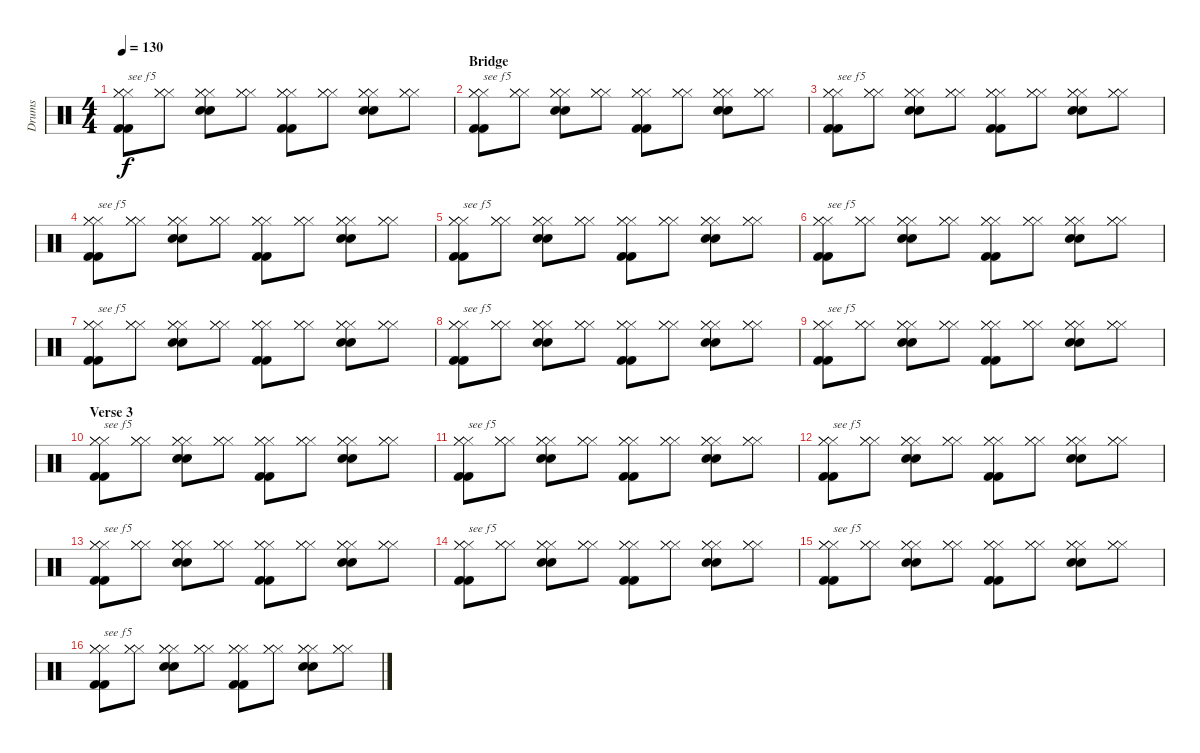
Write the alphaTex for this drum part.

\track ("Drums" "Drums") {instrument percussion}
\staff {score}
\articulation defaults
\ts (4 4)
\tempo 130
\clef neutral
\ks c
("Hi-Hat (closed)" "Hi-Hat (closed)" "Hi-Hat (closed)" "Kick (hit) 2" "Kick (hit) 2").8{txt "see f5" dy f} ("Hi-Hat (closed)" "Hi-Hat (closed)" "Hi-Hat (closed)").8 ("Hi-Hat (closed)" "Hi-Hat (closed)" "Hi-Hat (closed)" "Electric Snare (hit)" "Electric Snare (hit)").8 ("Hi-Hat (closed)" "Hi-Hat (closed)" "Hi-Hat (closed)").8 ("Hi-Hat (closed)" "Hi-Hat (closed)" "Hi-Hat (closed)" "Kick (hit) 2" "Kick (hit) 2").8 ("Hi-Hat (closed)" "Hi-Hat (closed)" "Hi-Hat (closed)").8 ("Hi-Hat (closed)" "Hi-Hat (closed)" "Hi-Hat (closed)" "Electric Snare (hit)" "Electric Snare (hit)").8 ("Hi-Hat (closed)" "Hi-Hat (closed)" "Hi-Hat (closed)").8 |
\section ("" "Bridge")
("Hi-Hat (closed)" "Hi-Hat (closed)" "Hi-Hat (closed)" "Kick (hit) 2" "Kick (hit) 2").8{txt "see f5"} ("Hi-Hat (closed)" "Hi-Hat (closed)" "Hi-Hat (closed)").8 ("Hi-Hat (closed)" "Hi-Hat (closed)" "Hi-Hat (closed)" "Electric Snare (hit)" "Electric Snare (hit)").8 ("Hi-Hat (closed)" "Hi-Hat (closed)" "Hi-Hat (closed)").8 ("Hi-Hat (closed)" "Hi-Hat (closed)" "Hi-Hat (closed)" "Kick (hit) 2" "Kick (hit) 2").8 ("Hi-Hat (closed)" "Hi-Hat (closed)" "Hi-Hat (closed)").8 ("Hi-Hat (closed)" "Hi-Hat (closed)" "Hi-Hat (closed)" "Electric Snare (hit)" "Electric Snare (hit)").8 ("Hi-Hat (closed)" "Hi-Hat (closed)" "Hi-Hat (closed)").8 |
("Hi-Hat (closed)" "Hi-Hat (closed)" "Hi-Hat (closed)" "Kick (hit) 2" "Kick (hit) 2").8{txt "see f5"} ("Hi-Hat (closed)" "Hi-Hat (closed)" "Hi-Hat (closed)").8 ("Hi-Hat (closed)" "Hi-Hat (closed)" "Hi-Hat (closed)" "Electric Snare (hit)" "Electric Snare (hit)").8 ("Hi-Hat (closed)" "Hi-Hat (closed)" "Hi-Hat (closed)").8 ("Hi-Hat (closed)" "Hi-Hat (closed)" "Hi-Hat (closed)" "Kick (hit) 2" "Kick (hit) 2").8 ("Hi-Hat (closed)" "Hi-Hat (closed)" "Hi-Hat (closed)").8 ("Hi-Hat (closed)" "Hi-Hat (closed)" "Hi-Hat (closed)" "Electric Snare (hit)" "Electric Snare (hit)").8 ("Hi-Hat (closed)" "Hi-Hat (closed)" "Hi-Hat (closed)").8 |
("Hi-Hat (closed)" "Hi-Hat (closed)" "Hi-Hat (closed)" "Kick (hit) 2" "Kick (hit) 2").8{txt "see f5"} ("Hi-Hat (closed)" "Hi-Hat (closed)" "Hi-Hat (closed)").8 ("Hi-Hat (closed)" "Hi-Hat (closed)" "Hi-Hat (closed)" "Electric Snare (hit)" "Electric Snare (hit)").8 ("Hi-Hat (closed)" "Hi-Hat (closed)" "Hi-Hat (closed)").8 ("Hi-Hat (closed)" "Hi-Hat (closed)" "Hi-Hat (closed)" "Kick (hit) 2" "Kick (hit) 2").8 ("Hi-Hat (closed)" "Hi-Hat (closed)" "Hi-Hat (closed)").8 ("Hi-Hat (closed)" "Hi-Hat (closed)" "Hi-Hat (closed)" "Electric Snare (hit)" "Electric Snare (hit)").8 ("Hi-Hat (closed)" "Hi-Hat (closed)" "Hi-Hat (closed)").8 |
("Hi-Hat (closed)" "Hi-Hat (closed)" "Hi-Hat (closed)" "Kick (hit) 2" "Kick (hit) 2").8{txt "see f5"} ("Hi-Hat (closed)" "Hi-Hat (closed)" "Hi-Hat (closed)").8 ("Hi-Hat (closed)" "Hi-Hat (closed)" "Hi-Hat (closed)" "Electric Snare (hit)" "Electric Snare (hit)").8 ("Hi-Hat (closed)" "Hi-Hat (closed)" "Hi-Hat (closed)").8 ("Hi-Hat (closed)" "Hi-Hat (closed)" "Hi-Hat (closed)" "Kick (hit) 2" "Kick (hit) 2").8 ("Hi-Hat (closed)" "Hi-Hat (closed)" "Hi-Hat (closed)").8 ("Hi-Hat (closed)" "Hi-Hat (closed)" "Hi-Hat (closed)" "Electric Snare (hit)" "Electric Snare (hit)").8 ("Hi-Hat (closed)" "Hi-Hat (closed)" "Hi-Hat (closed)").8 |
("Hi-Hat (closed)" "Hi-Hat (closed)" "Hi-Hat (closed)" "Kick (hit) 2" "Kick (hit) 2").8{txt "see f5"} ("Hi-Hat (closed)" "Hi-Hat (closed)" "Hi-Hat (closed)").8 ("Hi-Hat (closed)" "Hi-Hat (closed)" "Hi-Hat (closed)" "Electric Snare (hit)" "Electric Snare (hit)").8 ("Hi-Hat (closed)" "Hi-Hat (closed)" "Hi-Hat (closed)").8 ("Hi-Hat (closed)" "Hi-Hat (closed)" "Hi-Hat (closed)" "Kick (hit) 2" "Kick (hit) 2").8 ("Hi-Hat (closed)" "Hi-Hat (closed)" "Hi-Hat (closed)").8 ("Hi-Hat (closed)" "Hi-Hat (closed)" "Hi-Hat (closed)" "Electric Snare (hit)" "Electric Snare (hit)").8 ("Hi-Hat (closed)" "Hi-Hat (closed)" "Hi-Hat (closed)").8 |
("Hi-Hat (closed)" "Hi-Hat (closed)" "Hi-Hat (closed)" "Kick (hit) 2" "Kick (hit) 2").8{txt "see f5"} ("Hi-Hat (closed)" "Hi-Hat (closed)" "Hi-Hat (closed)").8 ("Hi-Hat (closed)" "Hi-Hat (closed)" "Hi-Hat (closed)" "Electric Snare (hit)" "Electric Snare (hit)").8 ("Hi-Hat (closed)" "Hi-Hat (closed)" "Hi-Hat (closed)").8 ("Hi-Hat (closed)" "Hi-Hat (closed)" "Hi-Hat (closed)" "Kick (hit) 2" "Kick (hit) 2").8 ("Hi-Hat (closed)" "Hi-Hat (closed)" "Hi-Hat (closed)").8 ("Hi-Hat (closed)" "Hi-Hat (closed)" "Hi-Hat (closed)" "Electric Snare (hit)" "Electric Snare (hit)").8 ("Hi-Hat (closed)" "Hi-Hat (closed)" "Hi-Hat (closed)").8 |
("Hi-Hat (closed)" "Hi-Hat (closed)" "Hi-Hat (closed)" "Kick (hit) 2" "Kick (hit) 2").8{txt "see f5"} ("Hi-Hat (closed)" "Hi-Hat (closed)" "Hi-Hat (closed)").8 ("Hi-Hat (closed)" "Hi-Hat (closed)" "Hi-Hat (closed)" "Electric Snare (hit)" "Electric Snare (hit)").8 ("Hi-Hat (closed)" "Hi-Hat (closed)" "Hi-Hat (closed)").8 ("Hi-Hat (closed)" "Hi-Hat (closed)" "Hi-Hat (closed)" "Kick (hit) 2" "Kick (hit) 2").8 ("Hi-Hat (closed)" "Hi-Hat (closed)" "Hi-Hat (closed)").8 ("Hi-Hat (closed)" "Hi-Hat (closed)" "Hi-Hat (closed)" "Electric Snare (hit)" "Electric Snare (hit)").8 ("Hi-Hat (closed)" "Hi-Hat (closed)" "Hi-Hat (closed)").8 |
("Hi-Hat (closed)" "Hi-Hat (closed)" "Hi-Hat (closed)" "Kick (hit) 2" "Kick (hit) 2").8{txt "see f5"} ("Hi-Hat (closed)" "Hi-Hat (closed)" "Hi-Hat (closed)").8 ("Hi-Hat (closed)" "Hi-Hat (closed)" "Hi-Hat (closed)" "Electric Snare (hit)" "Electric Snare (hit)").8 ("Hi-Hat (closed)" "Hi-Hat (closed)" "Hi-Hat (closed)").8 ("Hi-Hat (closed)" "Hi-Hat (closed)" "Hi-Hat (closed)" "Kick (hit) 2" "Kick (hit) 2").8 ("Hi-Hat (closed)" "Hi-Hat (closed)" "Hi-Hat (closed)").8 ("Hi-Hat (closed)" "Hi-Hat (closed)" "Hi-Hat (closed)" "Electric Snare (hit)" "Electric Snare (hit)").8 ("Hi-Hat (closed)" "Hi-Hat (closed)" "Hi-Hat (closed)").8 |
\section ("" "Verse 3")
("Hi-Hat (closed)" "Hi-Hat (closed)" "Hi-Hat (closed)" "Kick (hit) 2" "Kick (hit) 2").8{txt "see f5"} ("Hi-Hat (closed)" "Hi-Hat (closed)" "Hi-Hat (closed)").8 ("Hi-Hat (closed)" "Hi-Hat (closed)" "Hi-Hat (closed)" "Electric Snare (hit)" "Electric Snare (hit)").8 ("Hi-Hat (closed)" "Hi-Hat (closed)" "Hi-Hat (closed)").8 ("Hi-Hat (closed)" "Hi-Hat (closed)" "Hi-Hat (closed)" "Kick (hit) 2" "Kick (hit) 2").8 ("Hi-Hat (closed)" "Hi-Hat (closed)" "Hi-Hat (closed)").8 ("Hi-Hat (closed)" "Hi-Hat (closed)" "Hi-Hat (closed)" "Electric Snare (hit)" "Electric Snare (hit)").8 ("Hi-Hat (closed)" "Hi-Hat (closed)" "Hi-Hat (closed)").8 |
("Hi-Hat (closed)" "Hi-Hat (closed)" "Hi-Hat (closed)" "Kick (hit) 2" "Kick (hit) 2").8{txt "see f5"} ("Hi-Hat (closed)" "Hi-Hat (closed)" "Hi-Hat (closed)").8 ("Hi-Hat (closed)" "Hi-Hat (closed)" "Hi-Hat (closed)" "Electric Snare (hit)" "Electric Snare (hit)").8 ("Hi-Hat (closed)" "Hi-Hat (closed)" "Hi-Hat (closed)").8 ("Hi-Hat (closed)" "Hi-Hat (closed)" "Hi-Hat (closed)" "Kick (hit) 2" "Kick (hit) 2").8 ("Hi-Hat (closed)" "Hi-Hat (closed)" "Hi-Hat (closed)").8 ("Hi-Hat (closed)" "Hi-Hat (closed)" "Hi-Hat (closed)" "Electric Snare (hit)" "Electric Snare (hit)").8 ("Hi-Hat (closed)" "Hi-Hat (closed)" "Hi-Hat (closed)").8 |
("Hi-Hat (closed)" "Hi-Hat (closed)" "Hi-Hat (closed)" "Kick (hit) 2" "Kick (hit) 2").8{txt "see f5"} ("Hi-Hat (closed)" "Hi-Hat (closed)" "Hi-Hat (closed)").8 ("Hi-Hat (closed)" "Hi-Hat (closed)" "Hi-Hat (closed)" "Electric Snare (hit)" "Electric Snare (hit)").8 ("Hi-Hat (closed)" "Hi-Hat (closed)" "Hi-Hat (closed)").8 ("Hi-Hat (closed)" "Hi-Hat (closed)" "Hi-Hat (closed)" "Kick (hit) 2" "Kick (hit) 2").8 ("Hi-Hat (closed)" "Hi-Hat (closed)" "Hi-Hat (closed)").8 ("Hi-Hat (closed)" "Hi-Hat (closed)" "Hi-Hat (closed)" "Electric Snare (hit)" "Electric Snare (hit)").8 ("Hi-Hat (closed)" "Hi-Hat (closed)" "Hi-Hat (closed)").8 |
("Hi-Hat (closed)" "Hi-Hat (closed)" "Hi-Hat (closed)" "Kick (hit) 2" "Kick (hit) 2").8{txt "see f5"} ("Hi-Hat (closed)" "Hi-Hat (closed)" "Hi-Hat (closed)").8 ("Hi-Hat (closed)" "Hi-Hat (closed)" "Hi-Hat (closed)" "Electric Snare (hit)" "Electric Snare (hit)").8 ("Hi-Hat (closed)" "Hi-Hat (closed)" "Hi-Hat (closed)").8 ("Hi-Hat (closed)" "Hi-Hat (closed)" "Hi-Hat (closed)" "Kick (hit) 2" "Kick (hit) 2").8 ("Hi-Hat (closed)" "Hi-Hat (closed)" "Hi-Hat (closed)").8 ("Hi-Hat (closed)" "Hi-Hat (closed)" "Hi-Hat (closed)" "Electric Snare (hit)" "Electric Snare (hit)").8 ("Hi-Hat (closed)" "Hi-Hat (closed)" "Hi-Hat (closed)").8 |
("Hi-Hat (closed)" "Hi-Hat (closed)" "Hi-Hat (closed)" "Kick (hit) 2" "Kick (hit) 2").8{txt "see f5"} ("Hi-Hat (closed)" "Hi-Hat (closed)" "Hi-Hat (closed)").8 ("Hi-Hat (closed)" "Hi-Hat (closed)" "Hi-Hat (closed)" "Electric Snare (hit)" "Electric Snare (hit)").8 ("Hi-Hat (closed)" "Hi-Hat (closed)" "Hi-Hat (closed)").8 ("Hi-Hat (closed)" "Hi-Hat (closed)" "Hi-Hat (closed)" "Kick (hit) 2" "Kick (hit) 2").8 ("Hi-Hat (closed)" "Hi-Hat (closed)" "Hi-Hat (closed)").8 ("Hi-Hat (closed)" "Hi-Hat (closed)" "Hi-Hat (closed)" "Electric Snare (hit)" "Electric Snare (hit)").8 ("Hi-Hat (closed)" "Hi-Hat (closed)" "Hi-Hat (closed)").8 |
("Hi-Hat (closed)" "Hi-Hat (closed)" "Hi-Hat (closed)" "Kick (hit) 2" "Kick (hit) 2").8{txt "see f5"} ("Hi-Hat (closed)" "Hi-Hat (closed)" "Hi-Hat (closed)").8 ("Hi-Hat (closed)" "Hi-Hat (closed)" "Hi-Hat (closed)" "Electric Snare (hit)" "Electric Snare (hit)").8 ("Hi-Hat (closed)" "Hi-Hat (closed)" "Hi-Hat (closed)").8 ("Hi-Hat (closed)" "Hi-Hat (closed)" "Hi-Hat (closed)" "Kick (hit) 2" "Kick (hit) 2").8 ("Hi-Hat (closed)" "Hi-Hat (closed)" "Hi-Hat (closed)").8 ("Hi-Hat (closed)" "Hi-Hat (closed)" "Hi-Hat (closed)" "Electric Snare (hit)" "Electric Snare (hit)").8 ("Hi-Hat (closed)" "Hi-Hat (closed)" "Hi-Hat (closed)").8 |
("Hi-Hat (closed)" "Hi-Hat (closed)" "Hi-Hat (closed)" "Kick (hit) 2" "Kick (hit) 2").8{txt "see f5"} ("Hi-Hat (closed)" "Hi-Hat (closed)" "Hi-Hat (closed)").8 ("Hi-Hat (closed)" "Hi-Hat (closed)" "Hi-Hat (closed)" "Electric Snare (hit)" "Electric Snare (hit)").8 ("Hi-Hat (closed)" "Hi-Hat (closed)" "Hi-Hat (closed)").8 ("Hi-Hat (closed)" "Hi-Hat (closed)" "Hi-Hat (closed)" "Kick (hit) 2" "Kick (hit) 2").8 ("Hi-Hat (closed)" "Hi-Hat (closed)" "Hi-Hat (closed)").8 ("Hi-Hat (closed)" "Hi-Hat (closed)" "Hi-Hat (closed)" "Electric Snare (hit)" "Electric Snare (hit)").8 ("Hi-Hat (closed)" "Hi-Hat (closed)" "Hi-Hat (closed)").8
